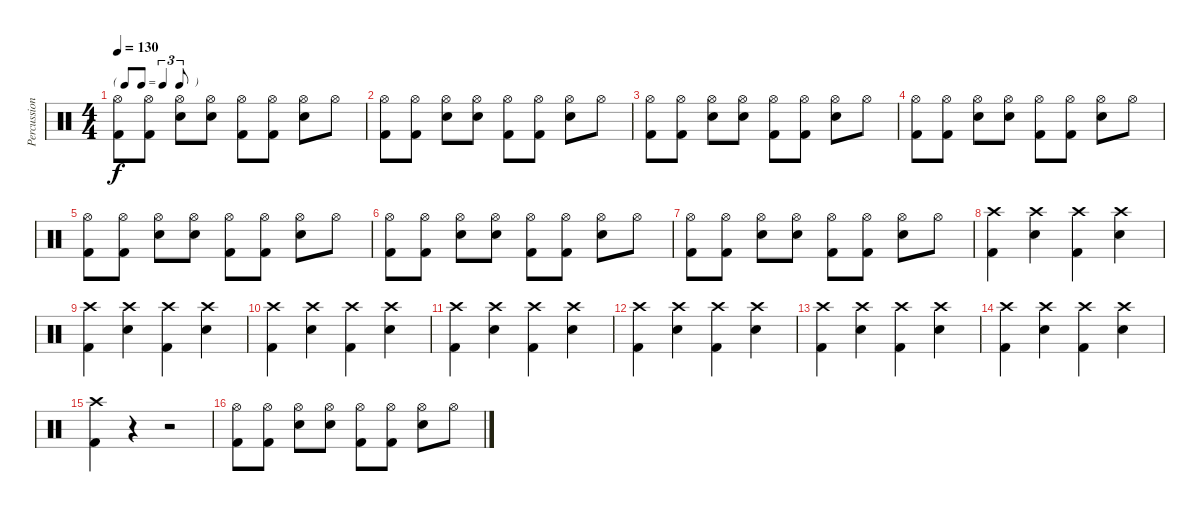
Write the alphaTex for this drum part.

\track ("Percussions" "Percussion") {instrument percussion}
\staff {score}
\articulation defaults
\ts (4 4)
\tf triplet8th
\tempo 130
\clef neutral
\ks c
("Hi-Hat (open)" "Kick (hit) 2").8{dy f} ("Hi-Hat (open)" "Kick (hit) 2").8 ("Hi-Hat (open)" "Electric Snare (hit)").8 ("Hi-Hat (open)" "Electric Snare (hit)").8 ("Hi-Hat (open)" "Kick (hit) 2").8 ("Hi-Hat (open)" "Kick (hit) 2").8 ("Hi-Hat (open)" "Electric Snare (hit)").8 "Hi-Hat (open)".8 |
("Hi-Hat (open)" "Kick (hit) 2").8 ("Hi-Hat (open)" "Kick (hit) 2").8 ("Hi-Hat (open)" "Electric Snare (hit)").8 ("Hi-Hat (open)" "Electric Snare (hit)").8 ("Hi-Hat (open)" "Kick (hit) 2").8 ("Hi-Hat (open)" "Kick (hit) 2").8 ("Hi-Hat (open)" "Electric Snare (hit)").8 "Hi-Hat (open)".8 |
("Hi-Hat (open)" "Kick (hit) 2").8 ("Hi-Hat (open)" "Kick (hit) 2").8 ("Hi-Hat (open)" "Electric Snare (hit)").8 ("Hi-Hat (open)" "Electric Snare (hit)").8 ("Hi-Hat (open)" "Kick (hit) 2").8 ("Hi-Hat (open)" "Kick (hit) 2").8 ("Hi-Hat (open)" "Electric Snare (hit)").8 "Hi-Hat (open)".8 |
("Hi-Hat (open)" "Kick (hit) 2").8 ("Hi-Hat (open)" "Kick (hit) 2").8 ("Hi-Hat (open)" "Electric Snare (hit)").8 ("Hi-Hat (open)" "Electric Snare (hit)").8 ("Hi-Hat (open)" "Kick (hit) 2").8 ("Hi-Hat (open)" "Kick (hit) 2").8 ("Hi-Hat (open)" "Electric Snare (hit)").8 "Hi-Hat (open)".8 |
("Hi-Hat (open)" "Kick (hit) 2").8 ("Hi-Hat (open)" "Kick (hit) 2").8 ("Hi-Hat (open)" "Electric Snare (hit)").8 ("Hi-Hat (open)" "Electric Snare (hit)").8 ("Hi-Hat (open)" "Kick (hit) 2").8 ("Hi-Hat (open)" "Kick (hit) 2").8 ("Hi-Hat (open)" "Electric Snare (hit)").8 "Hi-Hat (open)".8 |
("Hi-Hat (open)" "Kick (hit) 2").8 ("Hi-Hat (open)" "Kick (hit) 2").8 ("Hi-Hat (open)" "Electric Snare (hit)").8 ("Hi-Hat (open)" "Electric Snare (hit)").8 ("Hi-Hat (open)" "Kick (hit) 2").8 ("Hi-Hat (open)" "Kick (hit) 2").8 ("Hi-Hat (open)" "Electric Snare (hit)").8 "Hi-Hat (open)".8 |
("Hi-Hat (open)" "Kick (hit) 2").8 ("Hi-Hat (open)" "Kick (hit) 2").8 ("Hi-Hat (open)" "Electric Snare (hit)").8 ("Hi-Hat (open)" "Electric Snare (hit)").8 ("Hi-Hat (open)" "Kick (hit) 2").8 ("Hi-Hat (open)" "Kick (hit) 2").8 ("Hi-Hat (open)" "Electric Snare (hit)").8 "Hi-Hat (open)".8 |
("Crash high (hit)" "Kick (hit) 2").4 ("Crash high (hit)" "Electric Snare (hit)").4 ("Crash high (hit)" "Kick (hit) 2").4 ("Crash high (hit)" "Electric Snare (hit)").4 |
("Crash high (hit)" "Kick (hit) 2").4 ("Crash high (hit)" "Electric Snare (hit)").4 ("Crash high (hit)" "Kick (hit) 2").4 ("Crash high (hit)" "Electric Snare (hit)").4 |
("Crash high (hit)" "Kick (hit) 2").4 ("Crash high (hit)" "Electric Snare (hit)").4 ("Crash high (hit)" "Kick (hit) 2").4 ("Crash high (hit)" "Electric Snare (hit)").4 |
("Crash high (hit)" "Kick (hit) 2").4 ("Crash high (hit)" "Electric Snare (hit)").4 ("Crash high (hit)" "Kick (hit) 2").4 ("Crash high (hit)" "Electric Snare (hit)").4 |
("Crash high (hit)" "Kick (hit) 2").4 ("Crash high (hit)" "Electric Snare (hit)").4 ("Crash high (hit)" "Kick (hit) 2").4 ("Crash high (hit)" "Electric Snare (hit)").4 |
("Crash high (hit)" "Kick (hit) 2").4 ("Crash high (hit)" "Electric Snare (hit)").4 ("Crash high (hit)" "Kick (hit) 2").4 ("Crash high (hit)" "Electric Snare (hit)").4 |
("Crash high (hit)" "Kick (hit) 2").4 ("Crash high (hit)" "Electric Snare (hit)").4 ("Crash high (hit)" "Kick (hit) 2").4 ("Crash high (hit)" "Electric Snare (hit)").4 |
("Crash high (hit)" "Kick (hit) 2").4 r.4 r.2 |
("Hi-Hat (open)" "Kick (hit) 2").8 ("Hi-Hat (open)" "Kick (hit) 2").8 ("Hi-Hat (open)" "Electric Snare (hit)").8 ("Hi-Hat (open)" "Electric Snare (hit)").8 ("Hi-Hat (open)" "Kick (hit) 2").8 ("Hi-Hat (open)" "Kick (hit) 2").8 ("Hi-Hat (open)" "Electric Snare (hit)").8 "Hi-Hat (open)".8
